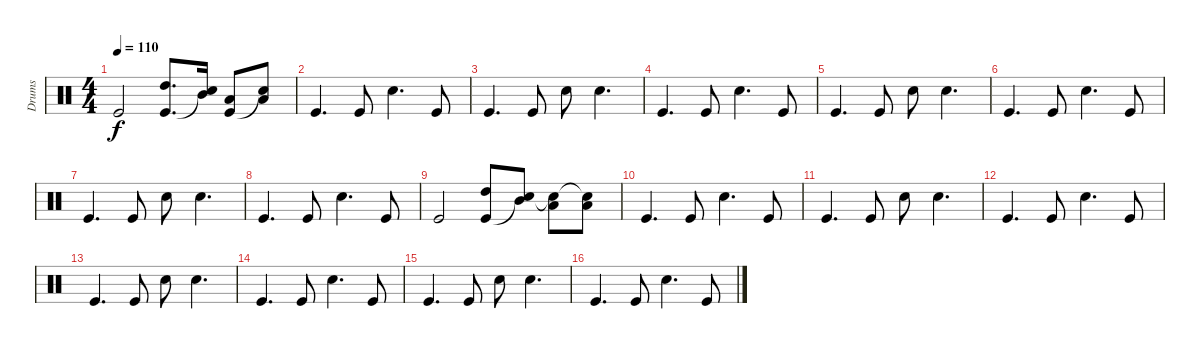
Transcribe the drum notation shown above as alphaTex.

\track ("Drums" "Drums") {instrument percussion}
\staff {score}
\articulation defaults
\ts (4 4)
\tempo 110
\clef neutral
\ks c "Kick (hit)".2{dy f}
("Kick (hit)" "High Tom (hit)").8{d} ("Snare (hit)"{t} "Mid Tom (hit)").16 ("Kick (hit)" "Low Tom (hit)").8 ("Snare (hit)"{t} "Low Floor Tom (hit)").8 |
"Kick (hit)".4{d} "Kick (hit)".8 "Snare (hit) 2".4{d} "Kick (hit)".8 |
"Kick (hit)".4{d} "Kick (hit)".8 "Snare (hit) 2".8 "Snare (hit) 2".4{d} |
"Kick (hit)".4{d} "Kick (hit)".8 "Snare (hit) 2".4{d} "Kick (hit)".8 |
"Kick (hit)".4{d} "Kick (hit)".8 "Snare (hit) 2".8 "Snare (hit) 2".4{d} |
"Kick (hit)".4{d} "Kick (hit)".8 "Snare (hit) 2".4{d} "Kick (hit)".8 |
"Kick (hit)".4{d} "Kick (hit)".8 "Snare (hit) 2".8 "Snare (hit) 2".4{d} |
"Kick (hit)".4{d} "Kick (hit)".8 "Snare (hit) 2".4{d} "Kick (hit)".8 |
"Kick (hit)".2 ("High Tom (hit)" "Kick (hit)").8 ("Mid Tom (hit)" "Snare (hit)"{t}).8 ("Low Tom (hit)" "Snare (hit) 2"{t}).8 ("Low Floor Tom (hit)" "Snare (hit) 2"{t}).8 |
"Kick (hit)".4{d} "Kick (hit)".8 "Snare (hit) 2".4{d} "Kick (hit)".8 |
"Kick (hit)".4{d} "Kick (hit)".8 "Snare (hit) 2".8 "Snare (hit) 2".4{d} |
"Kick (hit)".4{d} "Kick (hit)".8 "Snare (hit) 2".4{d} "Kick (hit)".8 |
"Kick (hit)".4{d} "Kick (hit)".8 "Snare (hit) 2".8 "Snare (hit) 2".4{d} |
"Kick (hit)".4{d} "Kick (hit)".8 "Snare (hit) 2".4{d} "Kick (hit)".8 |
"Kick (hit)".4{d} "Kick (hit)".8 "Snare (hit) 2".8 "Snare (hit) 2".4{d} |
"Kick (hit)".4{d} "Kick (hit)".8 "Snare (hit) 2".4{d} "Kick (hit)".8
